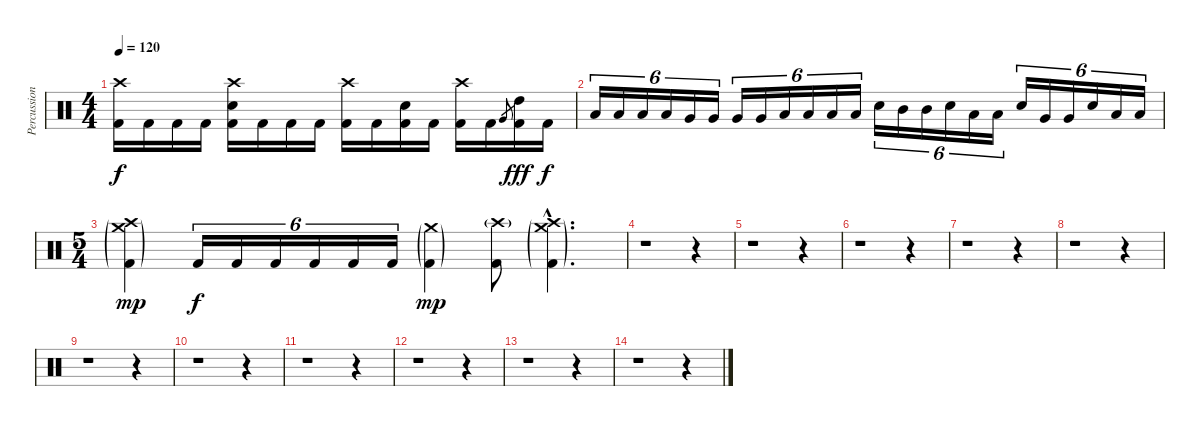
\track ("Percussioni" "Percussion") {instrument percussion}
\staff {score}
\articulation defaults
\ts (4 4)
\tempo 120
\clef neutral
\ks c
("Crash high (hit)" "Kick (hit) 2").16{dy f} "Kick (hit) 2".16 "Kick (hit) 2".16 "Kick (hit) 2".16 ("Crash high (hit)" "Electric Snare (hit)" "Kick (hit) 2").16 "Kick (hit) 2".16 "Kick (hit) 2".16 "Kick (hit) 2".16 ("Crash high (hit)" "Kick (hit) 2").16 "Kick (hit) 2".16 ("Electric Snare (hit)" "Kick (hit) 2").16 "Kick (hit) 2".16 ("Crash high (hit)" "Kick (hit) 2").16 "Kick (hit) 2".16 "Very Low Tom (hit)".8{gr} ("High Tom (hit)" "Kick (hit) 2").16{dy fff} "Kick (hit) 2".16{dy f} |
"Low Tom (hit)".16{tu (6 4)} "Low Tom (hit)".16{tu (6 4)} "Low Tom (hit)".16{tu (6 4)} "Low Tom (hit)".16{tu (6 4)} "Very Low Tom (hit)".16{tu (6 4)} "Very Low Tom (hit)".16{tu (6 4)} "Very Low Tom (hit)".16{tu (6 4)} "Very Low Tom (hit)".16{tu (6 4)} "Low Floor Tom (hit)".16{tu (6 4)} "Low Floor Tom (hit)".16{tu (6 4)} "Low Floor Tom (hit)".16{tu (6 4)} "Low Floor Tom (hit)".16{tu (6 4)} "Electric Snare (hit)".16{tu (6 4)} "Mid Tom (hit)".16{tu (6 4)} "Mid Tom (hit)".16{tu (6 4)} "Electric Snare (hit)".16{tu (6 4)} "Low Tom (hit)".16{tu (6 4)} "Low Tom (hit)".16{tu (6 4)} "Electric Snare (hit)".16{tu (6 4)} "Very Low Tom (hit)".16{tu (6 4)} "Very Low Tom (hit)".16{tu (6 4)} "Electric Snare (hit)".16{tu (6 4)} "Low Floor Tom (hit)".16{tu (6 4)} "Low Floor Tom (hit)".16{tu (6 4)} |
\ts (5 4)
("Crash medium (hit)"{g} "Crash high (hit)"{g} "Kick (hit) 2"{g}).4{dy mp} "Kick (hit) 2".16{tu (6 4) dy f} "Kick (hit) 2".16{tu (6 4)} "Kick (hit) 2".16{tu (6 4)} "Kick (hit) 2".16{tu (6 4)} "Kick (hit) 2".16{tu (6 4)} "Kick (hit) 2".16{tu (6 4)} ("Crash medium (hit)"{g} "Kick (hit) 2"{g}).4{dy mp} ("Crash high (hit)"{g} "Kick (hit) 2").8 ("Crash medium (hit)"{g hac} "Crash high (hit)"{g hac} "Kick (hit) 2"{g hac}).4{d} |
r.1 r.4 |
r.1 r.4 |
r.1 r.4 |
r.1 r.4 |
r.1 r.4 |
r.1 r.4 |
r.1 r.4 |
r.1 r.4 |
r.1 r.4 |
r.1 r.4 |
r.1 r.4
